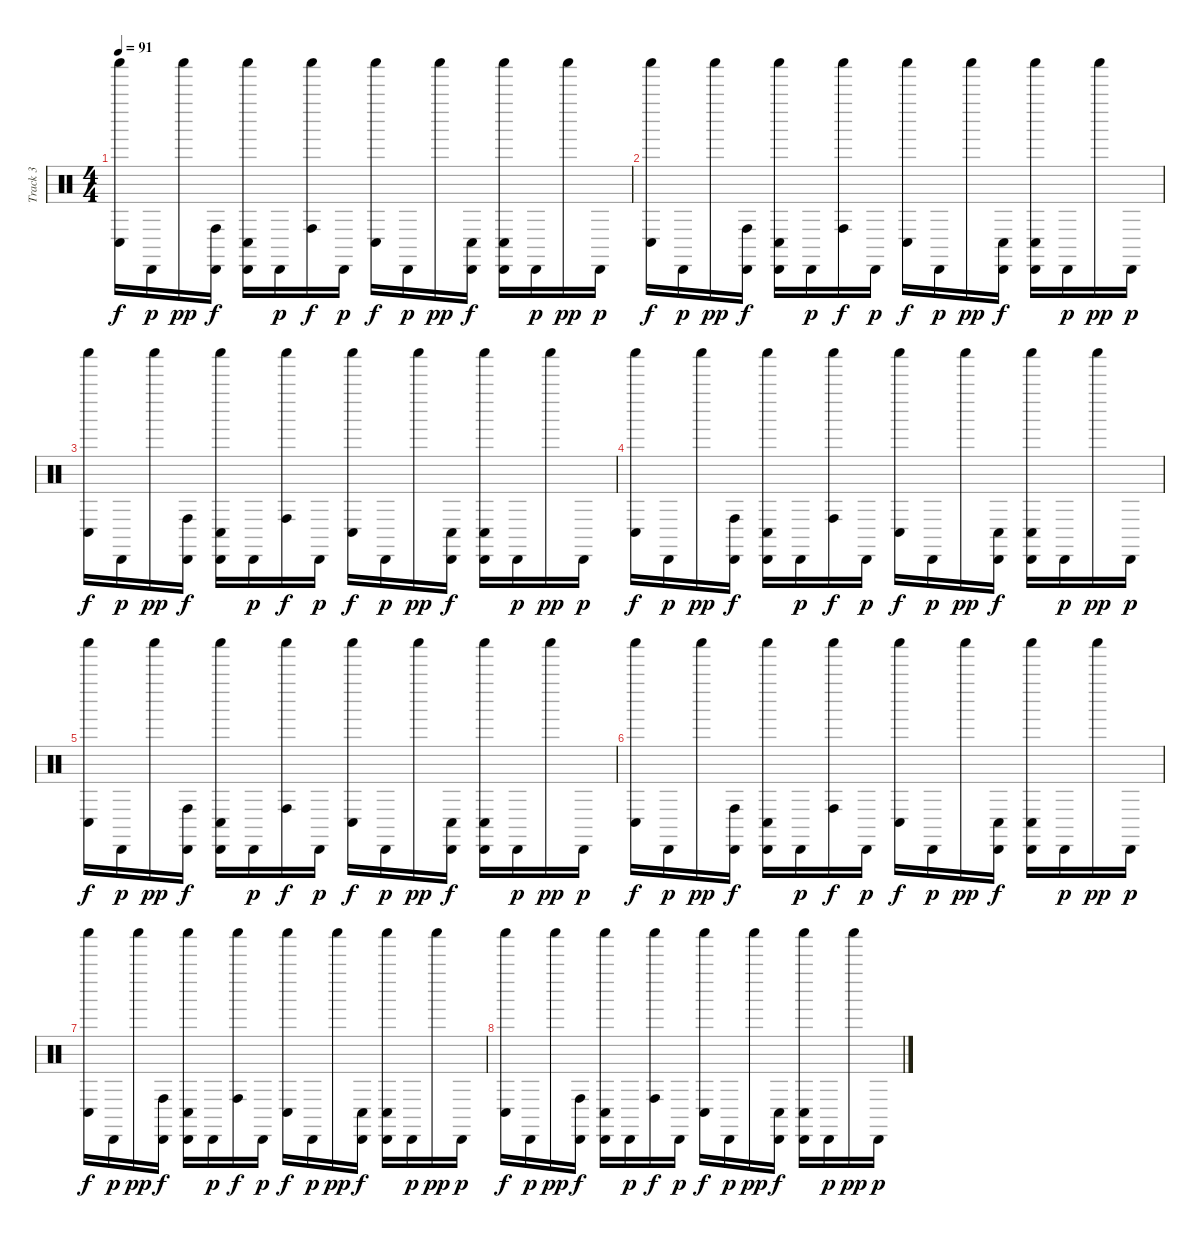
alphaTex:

\track ("Track 3" "Track 3") {instrument percussion}
\staff {score}
\articulation defaults
\ts (4 4)
\tempo 91
\clef neutral
\ks c
("Shaker (hit)" "Conga low (hit)").16{dy f} "Cabasa (hit)".16{dy p} "Shaker (hit)".16{dy pp} ("Cabasa (hit)" "Conga high (hit)").16{dy f} ("Cabasa (hit)" "Shaker (hit)" "Conga low (hit)").16 "Cabasa (hit)".16{dy p} ("Shaker (hit)" "Conga high (hit)").16{dy f} "Cabasa (hit)".16{dy p} ("Shaker (hit)" "Conga low (hit)").16{dy f} "Cabasa (hit)".16{dy p} "Shaker (hit)".16{dy pp} ("Cabasa (hit)" "Conga low (hit)").16{dy f} ("Cabasa (hit)" "Shaker (hit)" "Conga low (hit)").16 "Cabasa (hit)".16{dy p} "Shaker (hit)".16{dy pp} "Cabasa (hit)".16{dy p} |
("Shaker (hit)" "Conga low (hit)").16{dy f} "Cabasa (hit)".16{dy p} "Shaker (hit)".16{dy pp} ("Cabasa (hit)" "Conga high (hit)").16{dy f} ("Cabasa (hit)" "Shaker (hit)" "Conga low (hit)").16 "Cabasa (hit)".16{dy p} ("Shaker (hit)" "Conga high (hit)").16{dy f} "Cabasa (hit)".16{dy p} ("Shaker (hit)" "Conga low (hit)").16{dy f} "Cabasa (hit)".16{dy p} "Shaker (hit)".16{dy pp} ("Cabasa (hit)" "Conga low (hit)").16{dy f} ("Cabasa (hit)" "Shaker (hit)" "Conga low (hit)").16 "Cabasa (hit)".16{dy p} "Shaker (hit)".16{dy pp} "Cabasa (hit)".16{dy p} |
("Shaker (hit)" "Conga low (hit)").16{dy f} "Cabasa (hit)".16{dy p} "Shaker (hit)".16{dy pp} ("Cabasa (hit)" "Conga high (hit)").16{dy f} ("Cabasa (hit)" "Shaker (hit)" "Conga low (hit)").16 "Cabasa (hit)".16{dy p} ("Shaker (hit)" "Conga high (hit)").16{dy f} "Cabasa (hit)".16{dy p} ("Shaker (hit)" "Conga low (hit)").16{dy f} "Cabasa (hit)".16{dy p} "Shaker (hit)".16{dy pp} ("Cabasa (hit)" "Conga low (hit)").16{dy f} ("Cabasa (hit)" "Shaker (hit)" "Conga low (hit)").16 "Cabasa (hit)".16{dy p} "Shaker (hit)".16{dy pp} "Cabasa (hit)".16{dy p} |
("Shaker (hit)" "Conga low (hit)").16{dy f} "Cabasa (hit)".16{dy p} "Shaker (hit)".16{dy pp} ("Cabasa (hit)" "Conga high (hit)").16{dy f} ("Cabasa (hit)" "Shaker (hit)" "Conga low (hit)").16 "Cabasa (hit)".16{dy p} ("Shaker (hit)" "Conga high (hit)").16{dy f} "Cabasa (hit)".16{dy p} ("Shaker (hit)" "Conga low (hit)").16{dy f} "Cabasa (hit)".16{dy p} "Shaker (hit)".16{dy pp} ("Cabasa (hit)" "Conga low (hit)").16{dy f} ("Cabasa (hit)" "Shaker (hit)" "Conga low (hit)").16 "Cabasa (hit)".16{dy p} "Shaker (hit)".16{dy pp} "Cabasa (hit)".16{dy p} |
("Shaker (hit)" "Conga low (hit)").16{dy f} "Cabasa (hit)".16{dy p} "Shaker (hit)".16{dy pp} ("Cabasa (hit)" "Conga high (hit)").16{dy f} ("Cabasa (hit)" "Shaker (hit)" "Conga low (hit)").16 "Cabasa (hit)".16{dy p} ("Shaker (hit)" "Conga high (hit)").16{dy f} "Cabasa (hit)".16{dy p} ("Shaker (hit)" "Conga low (hit)").16{dy f} "Cabasa (hit)".16{dy p} "Shaker (hit)".16{dy pp} ("Cabasa (hit)" "Conga low (hit)").16{dy f} ("Cabasa (hit)" "Shaker (hit)" "Conga low (hit)").16 "Cabasa (hit)".16{dy p} "Shaker (hit)".16{dy pp} "Cabasa (hit)".16{dy p} |
("Shaker (hit)" "Conga low (hit)").16{dy f} "Cabasa (hit)".16{dy p} "Shaker (hit)".16{dy pp} ("Cabasa (hit)" "Conga high (hit)").16{dy f} ("Cabasa (hit)" "Shaker (hit)" "Conga low (hit)").16 "Cabasa (hit)".16{dy p} ("Shaker (hit)" "Conga high (hit)").16{dy f} "Cabasa (hit)".16{dy p} ("Shaker (hit)" "Conga low (hit)").16{dy f} "Cabasa (hit)".16{dy p} "Shaker (hit)".16{dy pp} ("Cabasa (hit)" "Conga low (hit)").16{dy f} ("Cabasa (hit)" "Shaker (hit)" "Conga low (hit)").16 "Cabasa (hit)".16{dy p} "Shaker (hit)".16{dy pp} "Cabasa (hit)".16{dy p} |
("Shaker (hit)" "Conga low (hit)").16{dy f} "Cabasa (hit)".16{dy p} "Shaker (hit)".16{dy pp} ("Cabasa (hit)" "Conga high (hit)").16{dy f} ("Cabasa (hit)" "Shaker (hit)" "Conga low (hit)").16 "Cabasa (hit)".16{dy p} ("Shaker (hit)" "Conga high (hit)").16{dy f} "Cabasa (hit)".16{dy p} ("Shaker (hit)" "Conga low (hit)").16{dy f} "Cabasa (hit)".16{dy p} "Shaker (hit)".16{dy pp} ("Cabasa (hit)" "Conga low (hit)").16{dy f} ("Cabasa (hit)" "Shaker (hit)" "Conga low (hit)").16 "Cabasa (hit)".16{dy p} "Shaker (hit)".16{dy pp} "Cabasa (hit)".16{dy p} |
("Shaker (hit)" "Conga low (hit)").16{dy f} "Cabasa (hit)".16{dy p} "Shaker (hit)".16{dy pp} ("Cabasa (hit)" "Conga high (hit)").16{dy f} ("Cabasa (hit)" "Shaker (hit)" "Conga low (hit)").16 "Cabasa (hit)".16{dy p} ("Shaker (hit)" "Conga high (hit)").16{dy f} "Cabasa (hit)".16{dy p} ("Shaker (hit)" "Conga low (hit)").16{dy f} "Cabasa (hit)".16{dy p} "Shaker (hit)".16{dy pp} ("Cabasa (hit)" "Conga low (hit)").16{dy f} ("Cabasa (hit)" "Shaker (hit)" "Conga low (hit)").16 "Cabasa (hit)".16{dy p} "Shaker (hit)".16{dy pp} "Cabasa (hit)".16{dy p}
